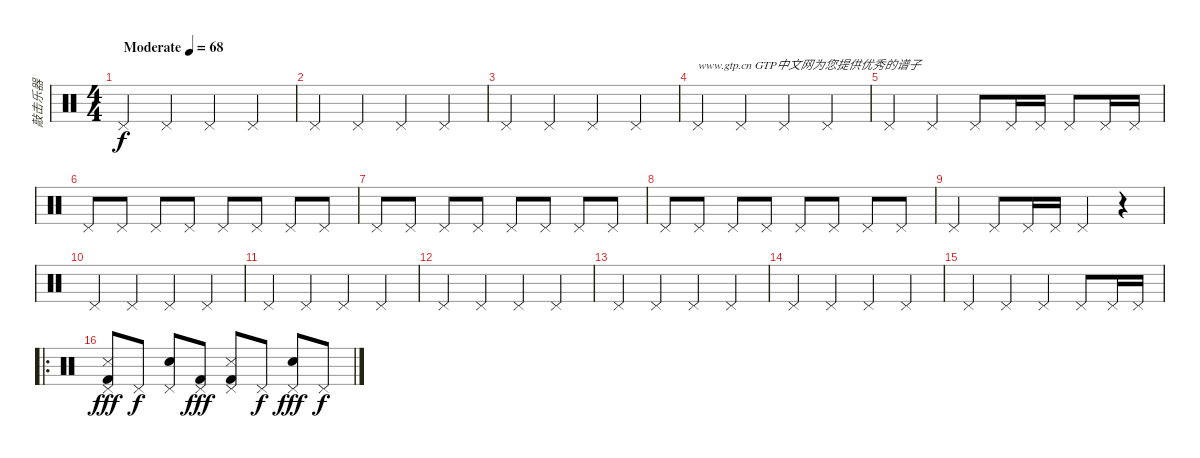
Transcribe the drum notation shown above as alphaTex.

\track ("敲击乐器" "敲击乐器") {instrument percussion}
\staff {score}
\articulation defaults
\ts (4 4)
\tempo (68 "Moderate")
\clef neutral
\ks c "Pedal Hi-Hat (hit)".4{dy f} "Pedal Hi-Hat (hit)".4 "Pedal Hi-Hat (hit)".4 "Pedal Hi-Hat (hit)".4
|
"Pedal Hi-Hat (hit)".4 "Pedal Hi-Hat (hit)".4 "Pedal Hi-Hat (hit)".4 "Pedal Hi-Hat (hit)".4 |
"Pedal Hi-Hat (hit)".4 "Pedal Hi-Hat (hit)".4 "Pedal Hi-Hat (hit)".4 "Pedal Hi-Hat (hit)".4 |
"Pedal Hi-Hat (hit)".4{txt "www.gtp.cn GTP中文网为您提供优秀的谱子"} "Pedal Hi-Hat (hit)".4 "Pedal Hi-Hat (hit)".4 "Pedal Hi-Hat (hit)".4 |
"Pedal Hi-Hat (hit)".4 "Pedal Hi-Hat (hit)".4 "Pedal Hi-Hat (hit)".8 "Pedal Hi-Hat (hit)".16 "Pedal Hi-Hat (hit)".16 "Pedal Hi-Hat (hit)".8 "Pedal Hi-Hat (hit)".16 "Pedal Hi-Hat (hit)".16 |
"Pedal Hi-Hat (hit)".8 "Pedal Hi-Hat (hit)".8 "Pedal Hi-Hat (hit)".8 "Pedal Hi-Hat (hit)".8 "Pedal Hi-Hat (hit)".8 "Pedal Hi-Hat (hit)".8 "Pedal Hi-Hat (hit)".8 "Pedal Hi-Hat (hit)".8 |
"Pedal Hi-Hat (hit)".8 "Pedal Hi-Hat (hit)".8 "Pedal Hi-Hat (hit)".8 "Pedal Hi-Hat (hit)".8 "Pedal Hi-Hat (hit)".8 "Pedal Hi-Hat (hit)".8 "Pedal Hi-Hat (hit)".8 "Pedal Hi-Hat (hit)".8 |
"Pedal Hi-Hat (hit)".8 "Pedal Hi-Hat (hit)".8 "Pedal Hi-Hat (hit)".8 "Pedal Hi-Hat (hit)".8 "Pedal Hi-Hat (hit)".8 "Pedal Hi-Hat (hit)".8 "Pedal Hi-Hat (hit)".8 "Pedal Hi-Hat (hit)".8 |
"Pedal Hi-Hat (hit)".4 "Pedal Hi-Hat (hit)".8 "Pedal Hi-Hat (hit)".16 "Pedal Hi-Hat (hit)".16 "Pedal Hi-Hat (hit)".4 r.4 |
"Pedal Hi-Hat (hit)".4 "Pedal Hi-Hat (hit)".4 "Pedal Hi-Hat (hit)".4 "Pedal Hi-Hat (hit)".4 |
"Pedal Hi-Hat (hit)".4 "Pedal Hi-Hat (hit)".4 "Pedal Hi-Hat (hit)".4 "Pedal Hi-Hat (hit)".4 |
"Pedal Hi-Hat (hit)".4 "Pedal Hi-Hat (hit)".4 "Pedal Hi-Hat (hit)".4 "Pedal Hi-Hat (hit)".4 |
"Pedal Hi-Hat (hit)".4 "Pedal Hi-Hat (hit)".4 "Pedal Hi-Hat (hit)".4 "Pedal Hi-Hat (hit)".4 |
"Pedal Hi-Hat (hit)".4 "Pedal Hi-Hat (hit)".4 "Pedal Hi-Hat (hit)".4 "Pedal Hi-Hat (hit)".4 |
"Pedal Hi-Hat (hit)".4 "Pedal Hi-Hat (hit)".4 "Pedal Hi-Hat (hit)".4 "Pedal Hi-Hat (hit)".8 "Pedal Hi-Hat (hit)".16 "Pedal Hi-Hat (hit)".16 |
\ro
("Snare (side stick) 3" "Pedal Hi-Hat (hit)" "Kick (hit) 2").8{dy fff} "Pedal Hi-Hat (hit)".8{dy f} ("Hand Clap (hit)" "Pedal Hi-Hat (hit)").8 ("Pedal Hi-Hat (hit)" "Kick (hit) 2").8{dy fff} ("Snare (side stick) 3" "Pedal Hi-Hat (hit)" "Kick (hit) 2").8 "Pedal Hi-Hat (hit)".8{dy f} ("Hand Clap (hit)" "Pedal Hi-Hat (hit)").8{dy fff} "Pedal Hi-Hat (hit)".8{dy f}
